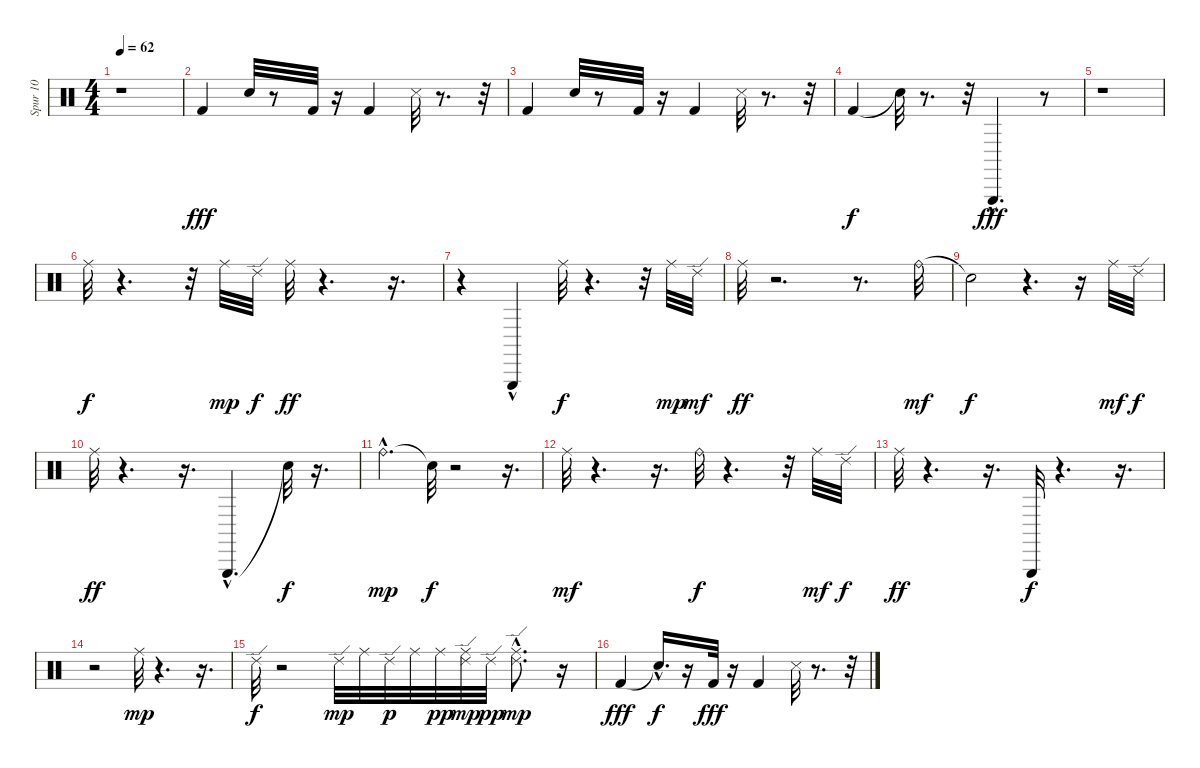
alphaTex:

\track ("Spur 10" "Spur 10") {instrument percussion}
\staff {score}
\articulation defaults
\ts (4 4)
\tempo 62
\clef neutral
\ks c
r.1{dy fff} |
"Kick (hit) 2".4 "Electric Snare (hit)".32 r.8 "Kick (hit) 2".32 r.16 "Kick (hit) 2".4 "Snare (side stick) 3".32 r.8{d} r.32 |
"Kick (hit) 2".4 "Electric Snare (hit)".32 r.8 "Kick (hit) 2".32 r.16 "Kick (hit) 2".4 "Snare (side stick) 3".32 r.8{d} r.32 |
"Kick (hit) 2".4{dy f} "Snare (hit)"{t}.32 r.8{d} r.32 "Triangle (hit)"{hac}.4{d dy fff} r.8 |
r.1 |
"Ride (middle)".32{dy f} r.4{d} r.32 "Ride (middle)".32{dy mp} "Ride (edge) 2".32{dy f} "Ride (middle)".32{dy ff} r.4{d} r.16{d} |
r.4 "Triangle (hit)"{hac}.4 "Ride (middle)".32{dy f} r.4{d} r.32 "Ride (middle)".32{dy mp} "Ride (edge) 2".32{dy mf} |
"Ride (middle)".32{dy ff} r.2{d} r.8{d} "Ride (bell)".32{dy mf} |
"Snare (hit)"{t}.2{dy f} r.4{d} r.16 "Ride (middle)".32{dy mf} "Ride (edge) 2".32{dy f} |
"Ride (middle)".32{dy ff} r.4{d} r.16{d} "Triangle (hit)"{hac}.4{d} "Snare (hit)"{t}.32{dy f} r.16{d} |
"Ride (bell)"{hac}.4{d dy mp} "Snare (hit)"{t}.32{dy f} r.2 r.16{d} |
"Ride (middle)".32{dy mf} r.4{d} r.16{d} "Ride (bell)".32{dy f} r.4{d} r.32 "Ride (middle)".32{dy mf} "Ride (edge) 2".32{dy f} |
"Ride (middle)".32{dy ff} r.4{d} r.16{d} "Triangle (hit)".32{dy f} r.4{d} r.16{d} |
r.2 "Ride (middle)".32{dy mp} r.4{d} r.16{d} |
"Ride (edge) 2".32{dy f} r.2 "Ride (edge) 2".32{dy mp} "Ride (middle)".32 "Ride (edge) 2".32{dy p} "Ride (middle)".32 "Ride (middle)".32{dy pp} ("Ride (edge) 2" "Ride (middle)").32{dy mp} "Ride (edge) 2".32{dy pp} ("Ride (middle)"{hac} "Ride (edge) 2"{hac}).8{d dy mp} r.16 |
"Kick (hit) 2".4{dy fff} "Snare (hit)"{hac t}.16{d dy f} r.16 "Kick (hit) 2".32{dy fff} r.16 "Kick (hit) 2".4 "Snare (side stick) 3".32 r.8{d} r.32
